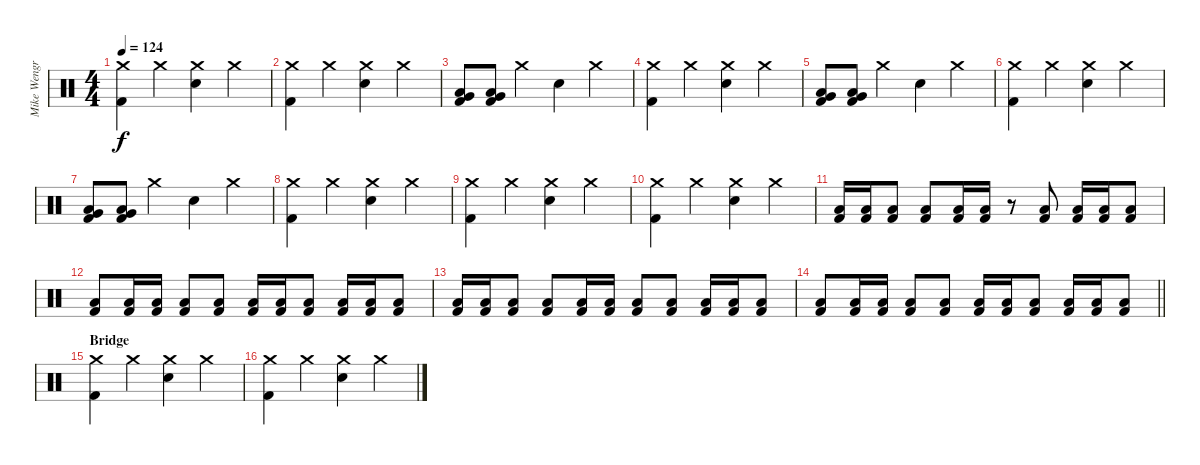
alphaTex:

\track ("Mike Wengren" "Mike Wengr") {instrument percussion}
\staff {score}
\articulation defaults
\ts (4 4)
\tempo 124
\clef neutral
\ks c
("Kick (hit) 2" "Crash medium (hit)").4{dy f} "Crash medium (hit)".4 ("Electric Snare (hit)" "Crash medium (hit)").4 "Crash medium (hit)".4 |
("Kick (hit) 2" "Crash medium (hit)").4 "Crash medium (hit)".4 ("Electric Snare (hit)" "Crash medium (hit)").4 "Crash medium (hit)".4 |
("Kick (hit) 2" "Very Low Tom (hit)" "Low Tom (hit)").8 ("Kick (hit) 2" "Very Low Tom (hit)" "Low Tom (hit)").8 "Crash medium (hit)".4 "Electric Snare (hit)".4 "Crash medium (hit)".4 |
("Kick (hit) 2" "Crash medium (hit)").4 "Crash medium (hit)".4 ("Electric Snare (hit)" "Crash medium (hit)").4 "Crash medium (hit)".4 |
("Kick (hit) 2" "Very Low Tom (hit)" "Low Tom (hit)").8 ("Kick (hit) 2" "Very Low Tom (hit)" "Low Tom (hit)").8 "Crash medium (hit)".4 "Electric Snare (hit)".4 "Crash medium (hit)".4 |
("Kick (hit) 2" "Crash medium (hit)").4 "Crash medium (hit)".4 ("Electric Snare (hit)" "Crash medium (hit)").4 "Crash medium (hit)".4 |
("Kick (hit) 2" "Very Low Tom (hit)" "Low Tom (hit)").8 ("Kick (hit) 2" "Very Low Tom (hit)" "Low Tom (hit)").8 "Crash medium (hit)".4 "Electric Snare (hit)".4 "Crash medium (hit)".4 |
("Kick (hit) 2" "Crash medium (hit)").4 "Crash medium (hit)".4 ("Electric Snare (hit)" "Crash medium (hit)").4 "Crash medium (hit)".4 |
("Kick (hit) 2" "Crash medium (hit)").4 "Crash medium (hit)".4 ("Electric Snare (hit)" "Crash medium (hit)").4 "Crash medium (hit)".4 |
("Kick (hit) 2" "Crash medium (hit)").4 "Crash medium (hit)".4 ("Electric Snare (hit)" "Crash medium (hit)").4 "Crash medium (hit)".4 |
("Kick (hit) 2" "Low Tom (hit)").16 ("Kick (hit) 2" "Low Tom (hit)").16 ("Kick (hit) 2" "Low Tom (hit)").8 ("Kick (hit) 2" "Low Tom (hit)").8 ("Kick (hit) 2" "Low Tom (hit)").16 ("Kick (hit) 2" "Low Tom (hit)").16 r.8 ("Kick (hit) 2" "Low Tom (hit)").8 ("Kick (hit) 2" "Low Tom (hit)").16 ("Kick (hit) 2" "Low Tom (hit)").16 ("Kick (hit) 2" "Low Tom (hit)").8 |
("Kick (hit) 2" "Low Tom (hit)").8 ("Kick (hit) 2" "Low Tom (hit)").16 ("Kick (hit) 2" "Low Tom (hit)").16 ("Kick (hit) 2" "Low Tom (hit)").8 ("Kick (hit) 2" "Low Tom (hit)").8 ("Kick (hit) 2" "Low Tom (hit)").16 ("Kick (hit) 2" "Low Tom (hit)").16 ("Kick (hit) 2" "Low Tom (hit)").8 ("Kick (hit) 2" "Low Tom (hit)").16 ("Kick (hit) 2" "Low Tom (hit)").16 ("Kick (hit) 2" "Low Tom (hit)").8 |
("Kick (hit) 2" "Low Tom (hit)").16 ("Kick (hit) 2" "Low Tom (hit)").16 ("Kick (hit) 2" "Low Tom (hit)").8 ("Kick (hit) 2" "Low Tom (hit)").8 ("Kick (hit) 2" "Low Tom (hit)").16 ("Kick (hit) 2" "Low Tom (hit)").16 ("Kick (hit) 2" "Low Tom (hit)").8 ("Kick (hit) 2" "Low Tom (hit)").8 ("Kick (hit) 2" "Low Tom (hit)").16 ("Kick (hit) 2" "Low Tom (hit)").16 ("Kick (hit) 2" "Low Tom (hit)").8 |
\barLineRight lightlight
("Kick (hit) 2" "Low Tom (hit)").8 ("Kick (hit) 2" "Low Tom (hit)").16 ("Kick (hit) 2" "Low Tom (hit)").16 ("Kick (hit) 2" "Low Tom (hit)").8 ("Kick (hit) 2" "Low Tom (hit)").8 ("Kick (hit) 2" "Low Tom (hit)").16 ("Kick (hit) 2" "Low Tom (hit)").16 ("Kick (hit) 2" "Low Tom (hit)").8 ("Kick (hit) 2" "Low Tom (hit)").16 ("Kick (hit) 2" "Low Tom (hit)").16 ("Kick (hit) 2" "Low Tom (hit)").8 |
\section ("" "Bridge")
("Kick (hit) 2" "Crash medium (hit)").4 "Crash medium (hit)".4 ("Electric Snare (hit)" "Crash medium (hit)").4 "Crash medium (hit)".4 |
("Kick (hit) 2" "Crash medium (hit)").4 "Crash medium (hit)".4 ("Electric Snare (hit)" "Crash medium (hit)").4 "Crash medium (hit)".4
